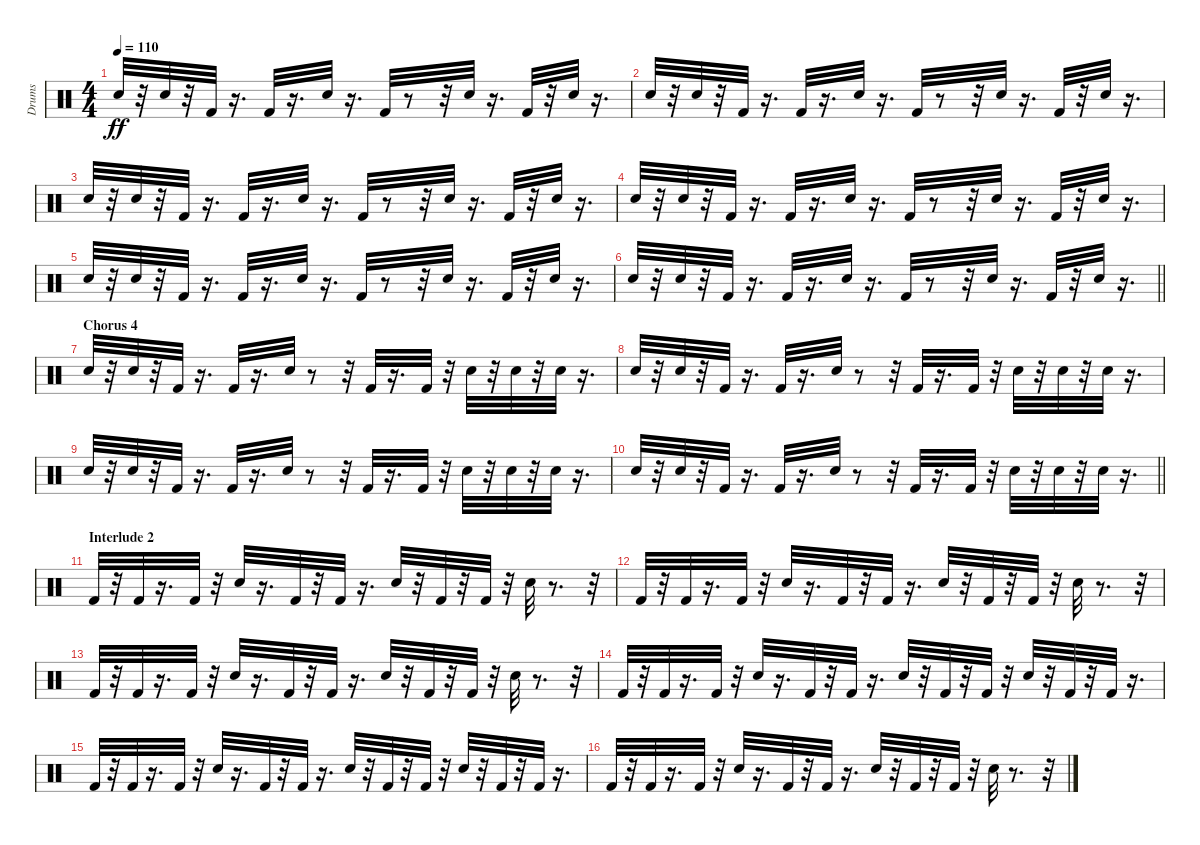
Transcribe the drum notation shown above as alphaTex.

\track ("Drums" "Drums") {instrument percussion}
\staff {score}
\articulation defaults
\ts (4 4)
\tempo 110
\clef neutral
\ks c "Electric Snare (hit)".32{dy ff}
r.32 "Electric Snare (hit)".32 r.32 "Kick (hit) 2".32 r.16{d} "Kick (hit) 2".32 r.16{d} "Electric Snare (hit)".32 r.16{d} "Kick (hit) 2".32 r.8 r.32 "Electric Snare (hit)".32 r.16{d} "Kick (hit) 2".32 r.32 "Electric Snare (hit)".32 r.16{d} |
"Electric Snare (hit)".32 r.32 "Electric Snare (hit)".32 r.32 "Kick (hit) 2".32 r.16{d} "Kick (hit) 2".32 r.16{d} "Electric Snare (hit)".32 r.16{d} "Kick (hit) 2".32 r.8 r.32 "Electric Snare (hit)".32 r.16{d} "Kick (hit) 2".32 r.32 "Electric Snare (hit)".32 r.16{d} |
"Electric Snare (hit)".32 r.32 "Electric Snare (hit)".32 r.32 "Kick (hit) 2".32 r.16{d} "Kick (hit) 2".32 r.16{d} "Electric Snare (hit)".32 r.16{d} "Kick (hit) 2".32 r.8 r.32 "Electric Snare (hit)".32 r.16{d} "Kick (hit) 2".32 r.32 "Electric Snare (hit)".32 r.16{d} |
"Electric Snare (hit)".32 r.32 "Electric Snare (hit)".32 r.32 "Kick (hit) 2".32 r.16{d} "Kick (hit) 2".32 r.16{d} "Electric Snare (hit)".32 r.16{d} "Kick (hit) 2".32 r.8 r.32 "Electric Snare (hit)".32 r.16{d} "Kick (hit) 2".32 r.32 "Electric Snare (hit)".32 r.16{d} |
"Electric Snare (hit)".32 r.32 "Electric Snare (hit)".32 r.32 "Kick (hit) 2".32 r.16{d} "Kick (hit) 2".32 r.16{d} "Electric Snare (hit)".32 r.16{d} "Kick (hit) 2".32 r.8 r.32 "Electric Snare (hit)".32 r.16{d} "Kick (hit) 2".32 r.32 "Electric Snare (hit)".32 r.16{d} |
\barLineRight lightlight "Electric Snare (hit)".32
r.32 "Electric Snare (hit)".32 r.32 "Kick (hit) 2".32 r.16{d} "Kick (hit) 2".32 r.16{d} "Electric Snare (hit)".32 r.16{d} "Kick (hit) 2".32 r.8 r.32 "Electric Snare (hit)".32 r.16{d} "Kick (hit) 2".32 r.32 "Electric Snare (hit)".32 r.16{d} |
\section ("" "Chorus 4")
"Electric Snare (hit)".32 r.32 "Electric Snare (hit)".32 r.32 "Kick (hit) 2".32 r.16{d} "Kick (hit) 2".32 r.16{d} "Electric Snare (hit)".32 r.8 r.32 "Kick (hit) 2".32 r.16{d} "Kick (hit) 2".32 r.32 "Electric Snare (hit)".32 r.32 "Electric Snare (hit)".32 r.32 "Electric Snare (hit)".32 r.16{d} |
"Electric Snare (hit)".32 r.32 "Electric Snare (hit)".32 r.32 "Kick (hit) 2".32 r.16{d} "Kick (hit) 2".32 r.16{d} "Electric Snare (hit)".32 r.8 r.32 "Kick (hit) 2".32 r.16{d} "Kick (hit) 2".32 r.32 "Electric Snare (hit)".32 r.32 "Electric Snare (hit)".32 r.32 "Electric Snare (hit)".32 r.16{d} |
"Electric Snare (hit)".32 r.32 "Electric Snare (hit)".32 r.32 "Kick (hit) 2".32 r.16{d} "Kick (hit) 2".32 r.16{d} "Electric Snare (hit)".32 r.8 r.32 "Kick (hit) 2".32 r.16{d} "Kick (hit) 2".32 r.32 "Electric Snare (hit)".32 r.32 "Electric Snare (hit)".32 r.32 "Electric Snare (hit)".32 r.16{d} |
\barLineRight lightlight "Electric Snare (hit)".32
r.32 "Electric Snare (hit)".32 r.32 "Kick (hit) 2".32 r.16{d} "Kick (hit) 2".32 r.16{d} "Electric Snare (hit)".32 r.8 r.32 "Kick (hit) 2".32 r.16{d} "Kick (hit) 2".32 r.32 "Electric Snare (hit)".32 r.32 "Electric Snare (hit)".32 r.32 "Electric Snare (hit)".32 r.16{d} |
\section ("" "Interlude 2")
"Kick (hit) 2".32 r.32 "Kick (hit) 2".32 r.16{d} "Kick (hit) 2".32 r.32 "Electric Snare (hit)".32 r.16{d} "Kick (hit) 2".32 r.32 "Kick (hit) 2".32 r.16{d} "Electric Snare (hit)".32 r.32 "Kick (hit) 2".32 r.32 "Kick (hit) 2".32 r.32 "Electric Snare (hit)".32 r.8{d} r.32 |
"Kick (hit) 2".32 r.32 "Kick (hit) 2".32 r.16{d} "Kick (hit) 2".32 r.32 "Electric Snare (hit)".32 r.16{d} "Kick (hit) 2".32 r.32 "Kick (hit) 2".32 r.16{d} "Electric Snare (hit)".32 r.32 "Kick (hit) 2".32 r.32 "Kick (hit) 2".32 r.32 "Electric Snare (hit)".32 r.8{d} r.32 |
"Kick (hit) 2".32 r.32 "Kick (hit) 2".32 r.16{d} "Kick (hit) 2".32 r.32 "Electric Snare (hit)".32 r.16{d} "Kick (hit) 2".32 r.32 "Kick (hit) 2".32 r.16{d} "Electric Snare (hit)".32 r.32 "Kick (hit) 2".32 r.32 "Kick (hit) 2".32 r.32 "Electric Snare (hit)".32 r.8{d} r.32 |
"Kick (hit) 2".32 r.32 "Kick (hit) 2".32 r.16{d} "Kick (hit) 2".32 r.32 "Electric Snare (hit)".32 r.16{d} "Kick (hit) 2".32 r.32 "Kick (hit) 2".32 r.16{d} "Electric Snare (hit)".32 r.32 "Kick (hit) 2".32 r.32 "Kick (hit) 2".32 r.32 "Electric Snare (hit)".32 r.32 "Kick (hit) 2".32 r.32 "Kick (hit) 2".32 r.16{d} |
"Kick (hit) 2".32 r.32 "Kick (hit) 2".32 r.16{d} "Kick (hit) 2".32 r.32 "Electric Snare (hit)".32 r.16{d} "Kick (hit) 2".32 r.32 "Kick (hit) 2".32 r.16{d} "Electric Snare (hit)".32 r.32 "Kick (hit) 2".32 r.32 "Kick (hit) 2".32 r.32 "Electric Snare (hit)".32 r.32 "Kick (hit) 2".32 r.32 "Kick (hit) 2".32 r.16{d} |
"Kick (hit) 2".32 r.32 "Kick (hit) 2".32 r.16{d} "Kick (hit) 2".32 r.32 "Electric Snare (hit)".32 r.16{d} "Kick (hit) 2".32 r.32 "Kick (hit) 2".32 r.16{d} "Electric Snare (hit)".32 r.32 "Kick (hit) 2".32 r.32 "Kick (hit) 2".32 r.32 "Electric Snare (hit)".32 r.8{d} r.32
